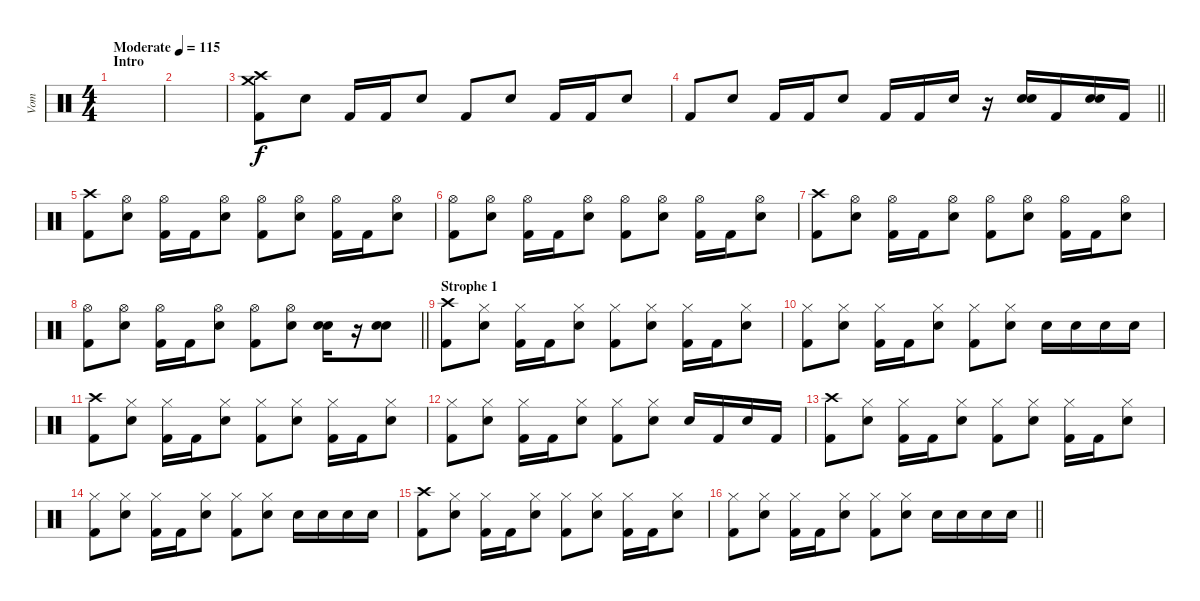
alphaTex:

\track ("Vom" "Vom") {instrument percussion}
\staff {score}
\articulation defaults
\ts (4 4)
\section ("" "Intro")
\tempo (115 "Moderate")
\clef neutral
\ks c
|
|
("Crash high (hit)" "Crash medium (hit)" "Kick (hit) 2").8 "Snare (hit) 2".8 "Kick (hit) 2".16 "Kick (hit) 2".16 "Snare (hit) 2".8 "Kick (hit) 2".8 "Snare (hit) 2".8 "Kick (hit) 2".16 "Kick (hit) 2".16 "Snare (hit) 2".8 |
\barLineRight lightlight "Kick (hit) 2".8 "Snare (hit) 2".8 "Kick (hit) 2".16 "Kick (hit) 2".16 "Snare (hit) 2".8 "Kick (hit) 2".16 "Kick (hit) 2".16 "Snare (hit) 2".16
r.16 ("Snare (hit) 2" "Snare (hit) 2").16 "Kick (hit) 2".16 ("Snare (hit) 2" "Snare (hit) 2").16 "Kick (hit) 2".16 |
("Crash high (hit)" "Kick (hit) 2").8 ("Hi-Hat (open)" "Snare (hit) 2").8 ("Hi-Hat (open)" "Kick (hit) 2").16 "Kick (hit) 2".16 ("Hi-Hat (open)" "Snare (hit) 2").8 ("Hi-Hat (open)" "Kick (hit) 2").8 ("Hi-Hat (open)" "Snare (hit) 2").8 ("Hi-Hat (open)" "Kick (hit) 2").16 "Kick (hit) 2".16 ("Hi-Hat (open)" "Snare (hit) 2").8 |
("Hi-Hat (open)" "Kick (hit) 2").8 ("Hi-Hat (open)" "Snare (hit) 2").8 ("Hi-Hat (open)" "Kick (hit) 2").16 "Kick (hit) 2".16 ("Hi-Hat (open)" "Snare (hit) 2").8 ("Hi-Hat (open)" "Kick (hit) 2").8 ("Hi-Hat (open)" "Snare (hit) 2").8 ("Hi-Hat (open)" "Kick (hit) 2").16 "Kick (hit) 2".16 ("Hi-Hat (open)" "Snare (hit) 2").8 |
("Crash high (hit)" "Kick (hit) 2").8 ("Hi-Hat (open)" "Snare (hit) 2").8 ("Hi-Hat (open)" "Kick (hit) 2").16 "Kick (hit) 2".16 ("Hi-Hat (open)" "Snare (hit) 2").8 ("Hi-Hat (open)" "Kick (hit) 2").8 ("Hi-Hat (open)" "Snare (hit) 2").8 ("Hi-Hat (open)" "Kick (hit) 2").16 "Kick (hit) 2".16 ("Hi-Hat (open)" "Snare (hit) 2").8 |
\barLineRight lightlight
("Hi-Hat (open)" "Kick (hit) 2").8 ("Hi-Hat (open)" "Snare (hit) 2").8 ("Hi-Hat (open)" "Kick (hit) 2").16 "Kick (hit) 2".16 ("Hi-Hat (open)" "Snare (hit) 2").8 ("Hi-Hat (open)" "Kick (hit) 2").8 ("Hi-Hat (open)" "Snare (hit) 2").8 ("Snare (hit) 2" "Snare (hit) 2").16 r.16 ("Snare (hit) 2" "Snare (hit) 2").8 |
\section ("" "Strophe 1")
("Crash high (hit)" "Kick (hit) 2").8 ("Hi-Hat (closed)" "Snare (hit) 2").8 ("Hi-Hat (closed)" "Kick (hit) 2").16 "Kick (hit) 2".16 ("Hi-Hat (closed)" "Snare (hit) 2").8 ("Hi-Hat (closed)" "Kick (hit) 2").8 ("Hi-Hat (closed)" "Snare (hit) 2").8 ("Hi-Hat (closed)" "Kick (hit) 2").16 "Kick (hit) 2".16 ("Hi-Hat (closed)" "Snare (hit) 2").8 |
("Hi-Hat (closed)" "Kick (hit) 2").8 ("Hi-Hat (closed)" "Snare (hit) 2").8 ("Hi-Hat (closed)" "Kick (hit) 2").16 "Kick (hit) 2".16 ("Hi-Hat (closed)" "Snare (hit) 2").8 ("Hi-Hat (closed)" "Kick (hit) 2").8 ("Hi-Hat (closed)" "Snare (hit) 2").8 "Snare (hit) 2".16 "Snare (hit) 2".16 "Snare (hit) 2".16 "Snare (hit) 2".16 |
("Crash high (hit)" "Kick (hit) 2").8 ("Hi-Hat (closed)" "Snare (hit) 2").8 ("Hi-Hat (closed)" "Kick (hit) 2").16 "Kick (hit) 2".16 ("Hi-Hat (closed)" "Snare (hit) 2").8 ("Hi-Hat (closed)" "Kick (hit) 2").8 ("Hi-Hat (closed)" "Snare (hit) 2").8 ("Hi-Hat (closed)" "Kick (hit) 2").16 "Kick (hit) 2".16 ("Hi-Hat (closed)" "Snare (hit) 2").8 |
("Hi-Hat (closed)" "Kick (hit) 2").8 ("Hi-Hat (closed)" "Snare (hit) 2").8 ("Hi-Hat (closed)" "Kick (hit) 2").16 "Kick (hit) 2".16 ("Hi-Hat (closed)" "Snare (hit) 2").8 ("Hi-Hat (closed)" "Kick (hit) 2").8 ("Hi-Hat (closed)" "Snare (hit) 2").8 "Snare (hit) 2".16 "Kick (hit) 2".16 "Snare (hit) 2".16 "Kick (hit) 2".16 |
("Crash high (hit)" "Kick (hit) 2").8 ("Hi-Hat (closed)" "Snare (hit) 2").8 ("Hi-Hat (closed)" "Kick (hit) 2").16 "Kick (hit) 2".16 ("Hi-Hat (closed)" "Snare (hit) 2").8 ("Hi-Hat (closed)" "Kick (hit) 2").8 ("Hi-Hat (closed)" "Snare (hit) 2").8 ("Hi-Hat (closed)" "Kick (hit) 2").16 "Kick (hit) 2".16 ("Hi-Hat (closed)" "Snare (hit) 2").8 |
("Hi-Hat (closed)" "Kick (hit) 2").8 ("Hi-Hat (closed)" "Snare (hit) 2").8 ("Hi-Hat (closed)" "Kick (hit) 2").16 "Kick (hit) 2".16 ("Hi-Hat (closed)" "Snare (hit) 2").8 ("Hi-Hat (closed)" "Kick (hit) 2").8 ("Hi-Hat (closed)" "Snare (hit) 2").8 "Snare (hit) 2".16 "Snare (hit) 2".16 "Snare (hit) 2".16 "Snare (hit) 2".16 |
("Crash high (hit)" "Kick (hit) 2").8 ("Hi-Hat (closed)" "Snare (hit) 2").8 ("Hi-Hat (closed)" "Kick (hit) 2").16 "Kick (hit) 2".16 ("Hi-Hat (closed)" "Snare (hit) 2").8 ("Hi-Hat (closed)" "Kick (hit) 2").8 ("Hi-Hat (closed)" "Snare (hit) 2").8 ("Hi-Hat (closed)" "Kick (hit) 2").16 "Kick (hit) 2".16 ("Hi-Hat (closed)" "Snare (hit) 2").8 |
\barLineRight lightlight
("Hi-Hat (closed)" "Kick (hit) 2").8 ("Hi-Hat (closed)" "Snare (hit) 2").8 ("Hi-Hat (closed)" "Kick (hit) 2").16 "Kick (hit) 2".16 ("Hi-Hat (closed)" "Snare (hit) 2").8 ("Hi-Hat (closed)" "Kick (hit) 2").8 ("Hi-Hat (closed)" "Snare (hit) 2").8 "Snare (hit) 2".16 "Snare (hit) 2".16 "Snare (hit) 2".16 "Snare (hit) 2".16
